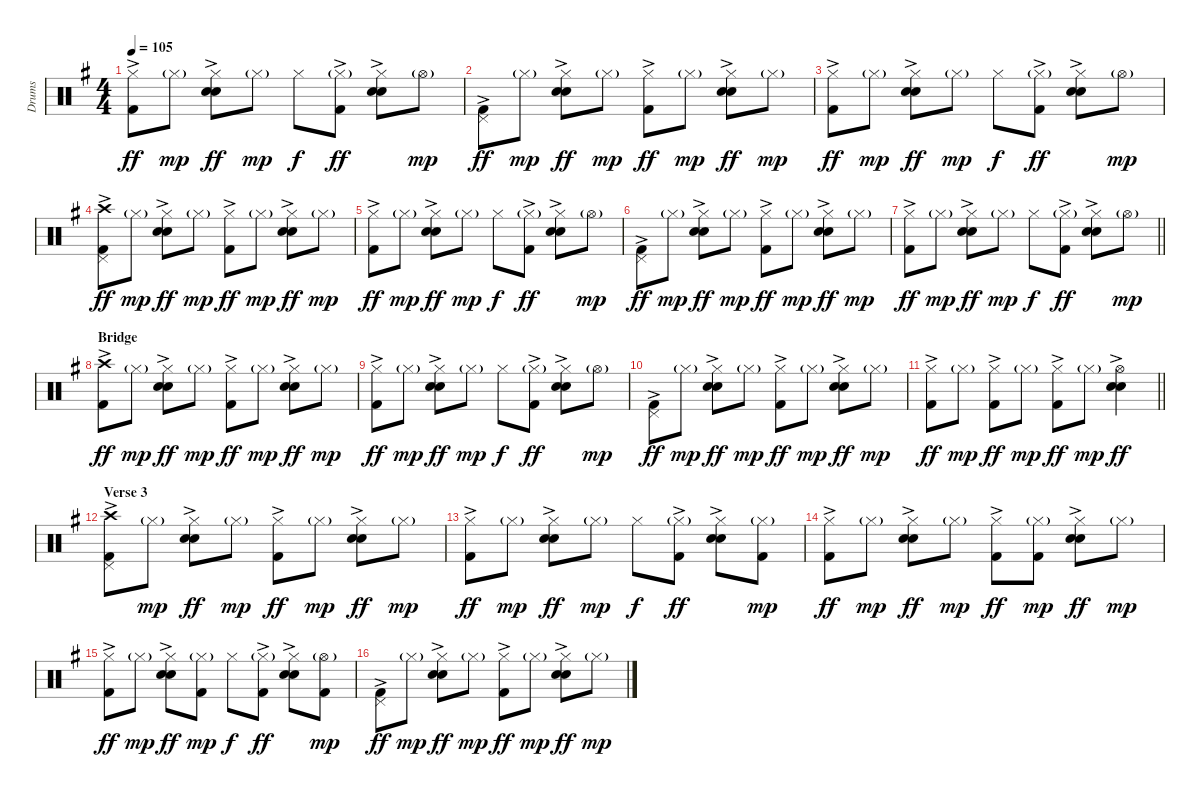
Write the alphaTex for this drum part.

\track ("Drums" "Drums") {instrument percussion}
\staff {score}
\articulation defaults
\ts (4 4)
\tempo 105
\clef neutral
\ks g
("Hi-Hat (closed)" "Kick (hit) 2"{ac}).8{dy ff} "Hi-Hat (closed)"{g}.8{dy mp} ("Hi-Hat (closed)" "Electric Snare (hit)"{ac} "Snare (hit) 2").8{dy ff} "Hi-Hat (closed)"{g}.8{dy mp} "Hi-Hat (closed)".8{dy f} ("Hi-Hat (closed)"{g} "Kick (hit) 2"{ac}).8{dy ff} ("Hi-Hat (closed)" "Electric Snare (hit)"{ac} "Snare (hit) 2").8 "Hi-Hat (open)"{g}.8{dy mp} |
("Pedal Hi-Hat (hit)" "Kick (hit) 2"{ac}).8{dy ff} "Hi-Hat (closed)"{g}.8{dy mp} ("Hi-Hat (closed)" "Electric Snare (hit)"{ac} "Snare (hit) 2").8{dy ff} "Hi-Hat (closed)"{g}.8{dy mp} ("Hi-Hat (closed)" "Kick (hit) 2"{ac}).8{dy ff} "Hi-Hat (closed)"{g}.8{dy mp} ("Hi-Hat (closed)" "Electric Snare (hit)"{ac} "Snare (hit) 2").8{dy ff} "Hi-Hat (closed)"{g}.8{dy mp} |
("Hi-Hat (closed)" "Kick (hit) 2"{ac}).8{dy ff} "Hi-Hat (closed)"{g}.8{dy mp} ("Hi-Hat (closed)" "Electric Snare (hit)"{ac} "Snare (hit) 2").8{dy ff} "Hi-Hat (closed)"{g}.8{dy mp} "Hi-Hat (closed)".8{dy f} ("Hi-Hat (closed)"{g} "Kick (hit) 2"{ac}).8{dy ff} ("Hi-Hat (closed)" "Electric Snare (hit)"{ac} "Snare (hit) 2").8 "Hi-Hat (open)"{g}.8{dy mp} |
("Pedal Hi-Hat (hit)" "Crash high (hit)" "Kick (hit) 2"{ac}).8{dy ff} "Hi-Hat (closed)"{g}.8{dy mp} ("Hi-Hat (closed)" "Electric Snare (hit)"{ac} "Snare (hit) 2").8{dy ff} "Hi-Hat (closed)"{g}.8{dy mp} ("Hi-Hat (closed)" "Kick (hit) 2"{ac}).8{dy ff} "Hi-Hat (closed)"{g}.8{dy mp} ("Hi-Hat (closed)" "Electric Snare (hit)"{ac} "Snare (hit) 2").8{dy ff} "Hi-Hat (closed)"{g}.8{dy mp} |
("Hi-Hat (closed)" "Kick (hit) 2"{ac}).8{dy ff} "Hi-Hat (closed)"{g}.8{dy mp} ("Hi-Hat (closed)" "Electric Snare (hit)"{ac} "Snare (hit) 2").8{dy ff} "Hi-Hat (closed)"{g}.8{dy mp} "Hi-Hat (closed)".8{dy f} ("Hi-Hat (closed)"{g} "Kick (hit) 2"{ac}).8{dy ff} ("Hi-Hat (closed)" "Electric Snare (hit)"{ac} "Snare (hit) 2").8 "Hi-Hat (open)"{g}.8{dy mp} |
("Pedal Hi-Hat (hit)" "Kick (hit) 2"{ac}).8{dy ff} "Hi-Hat (closed)"{g}.8{dy mp} ("Hi-Hat (closed)" "Electric Snare (hit)"{ac} "Snare (hit) 2").8{dy ff} "Hi-Hat (closed)"{g}.8{dy mp} ("Hi-Hat (closed)" "Kick (hit) 2"{ac}).8{dy ff} "Hi-Hat (closed)"{g}.8{dy mp} ("Hi-Hat (closed)" "Electric Snare (hit)"{ac} "Snare (hit) 2").8{dy ff} "Hi-Hat (closed)"{g}.8{dy mp} |
\barLineRight lightlight
("Hi-Hat (closed)" "Kick (hit) 2"{ac}).8{dy ff} "Hi-Hat (closed)"{g}.8{dy mp} ("Hi-Hat (closed)" "Electric Snare (hit)"{ac} "Snare (hit) 2").8{dy ff} "Hi-Hat (closed)"{g}.8{dy mp} "Hi-Hat (closed)".8{dy f} ("Hi-Hat (closed)"{g} "Kick (hit) 2"{ac}).8{dy ff} ("Hi-Hat (closed)" "Electric Snare (hit)"{ac} "Snare (hit) 2").8 "Hi-Hat (open)"{g}.8{dy mp} |
\section ("" "Bridge")
("Crash high (hit)" "Kick (hit) 2"{ac}).8{dy ff} "Hi-Hat (closed)"{g}.8{dy mp} ("Hi-Hat (closed)" "Electric Snare (hit)"{ac} "Snare (hit) 2").8{dy ff} "Hi-Hat (closed)"{g}.8{dy mp} ("Hi-Hat (closed)" "Kick (hit) 2"{ac}).8{dy ff} "Hi-Hat (closed)"{g}.8{dy mp} ("Hi-Hat (closed)" "Electric Snare (hit)"{ac} "Snare (hit) 2").8{dy ff} "Hi-Hat (closed)"{g}.8{dy mp} |
("Hi-Hat (closed)" "Kick (hit) 2"{ac}).8{dy ff} "Hi-Hat (closed)"{g}.8{dy mp} ("Hi-Hat (closed)" "Electric Snare (hit)"{ac} "Snare (hit) 2").8{dy ff} "Hi-Hat (closed)"{g}.8{dy mp} "Hi-Hat (closed)".8{dy f} ("Hi-Hat (closed)"{g} "Kick (hit) 2"{ac}).8{dy ff} ("Hi-Hat (closed)" "Electric Snare (hit)"{ac} "Snare (hit) 2").8 "Hi-Hat (open)"{g}.8{dy mp} |
("Pedal Hi-Hat (hit)" "Kick (hit) 2"{ac}).8{dy ff} "Hi-Hat (closed)"{g}.8{dy mp} ("Hi-Hat (closed)" "Electric Snare (hit)"{ac} "Snare (hit) 2").8{dy ff} "Hi-Hat (closed)"{g}.8{dy mp} ("Hi-Hat (closed)" "Kick (hit) 2"{ac}).8{dy ff} "Hi-Hat (closed)"{g}.8{dy mp} ("Hi-Hat (closed)" "Electric Snare (hit)"{ac} "Snare (hit) 2").8{dy ff} "Hi-Hat (closed)"{g}.8{dy mp} |
\barLineRight lightlight
("Hi-Hat (closed)" "Kick (hit) 2"{ac}).8{dy ff} "Hi-Hat (closed)"{g}.8{dy mp} ("Hi-Hat (closed)" "Kick (hit) 2"{ac}).8{dy ff} "Hi-Hat (closed)"{g}.8{dy mp} ("Hi-Hat (closed)" "Kick (hit) 2"{ac}).8{dy ff} "Hi-Hat (closed)"{g}.8{dy mp} ("Hi-Hat (open)" "Electric Snare (hit)"{ac} "Snare (hit) 2").4{dy ff} |
\section ("" "Verse 3")
("Pedal Hi-Hat (hit)" "Crash high (hit)" "Kick (hit) 2"{ac}).8 "Hi-Hat (closed)"{g}.8{dy mp} ("Hi-Hat (closed)" "Electric Snare (hit)"{ac} "Snare (hit) 2").8{dy ff} "Hi-Hat (closed)"{g}.8{dy mp} ("Hi-Hat (closed)" "Kick (hit) 2"{ac}).8{dy ff} "Hi-Hat (closed)"{g}.8{dy mp} ("Hi-Hat (closed)" "Electric Snare (hit)"{ac} "Snare (hit) 2").8{dy ff} "Hi-Hat (closed)"{g}.8{dy mp} |
("Hi-Hat (closed)" "Kick (hit) 2"{ac}).8{dy ff} "Hi-Hat (closed)"{g}.8{dy mp} ("Hi-Hat (closed)" "Electric Snare (hit)"{ac} "Snare (hit) 2").8{dy ff} "Hi-Hat (closed)"{g}.8{dy mp} "Hi-Hat (closed)".8{dy f} ("Hi-Hat (closed)"{g} "Kick (hit) 2"{ac}).8{dy ff} ("Hi-Hat (closed)" "Electric Snare (hit)"{ac} "Snare (hit) 2").8 ("Hi-Hat (closed)"{g} "Kick (hit) 2").8{dy mp} |
("Hi-Hat (closed)" "Kick (hit) 2"{ac}).8{dy ff} "Hi-Hat (closed)"{g}.8{dy mp} ("Hi-Hat (closed)" "Electric Snare (hit)"{ac} "Snare (hit) 2").8{dy ff} "Hi-Hat (closed)"{g}.8{dy mp} ("Hi-Hat (closed)" "Kick (hit) 2"{ac}).8{dy ff} ("Hi-Hat (closed)"{g} "Kick (hit) 2").8{dy mp} ("Hi-Hat (closed)" "Electric Snare (hit)"{ac} "Snare (hit) 2").8{dy ff} "Hi-Hat (closed)"{g}.8{dy mp} |
("Hi-Hat (closed)" "Kick (hit) 2"{ac}).8{dy ff} "Hi-Hat (closed)"{g}.8{dy mp} ("Hi-Hat (closed)" "Electric Snare (hit)"{ac} "Snare (hit) 2").8{dy ff} ("Hi-Hat (closed)"{g} "Kick (hit) 2").8{dy mp} "Hi-Hat (closed)".8{dy f} ("Hi-Hat (closed)"{g} "Kick (hit) 2"{ac}).8{dy ff} ("Hi-Hat (closed)" "Electric Snare (hit)"{ac} "Snare (hit) 2").8 ("Hi-Hat (open)"{g} "Kick (hit) 2").8{dy mp} |
("Pedal Hi-Hat (hit)" "Kick (hit) 2"{ac}).8{dy ff} "Hi-Hat (closed)"{g}.8{dy mp} ("Hi-Hat (closed)" "Electric Snare (hit)"{ac} "Snare (hit) 2").8{dy ff} "Hi-Hat (closed)"{g}.8{dy mp} ("Hi-Hat (closed)" "Kick (hit) 2"{ac}).8{dy ff} "Hi-Hat (closed)"{g}.8{dy mp} ("Hi-Hat (closed)" "Electric Snare (hit)"{ac} "Snare (hit) 2").8{dy ff} "Hi-Hat (closed)"{g}.8{dy mp}
